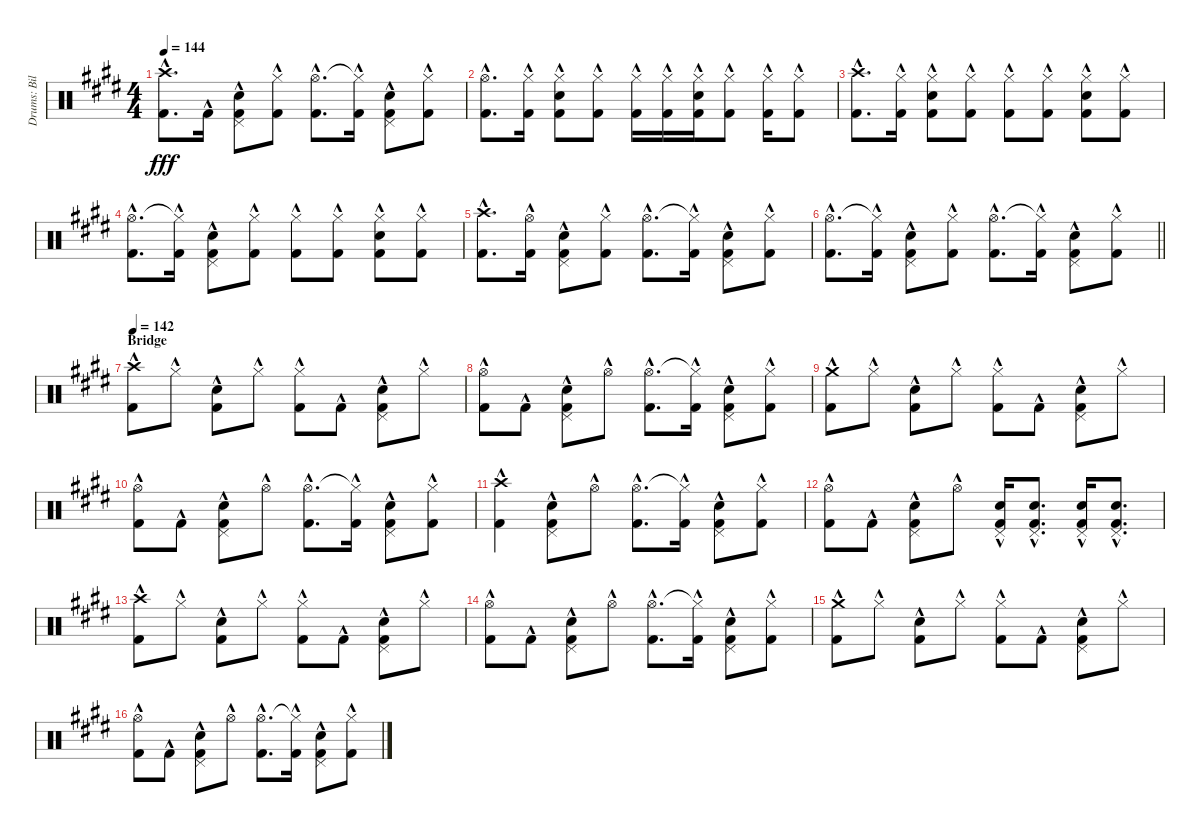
\track ("Drums: Bill" "Drums: Bil") {instrument percussion}
\staff {score}
\articulation defaults
\ts (4 4)
\tempo 144
\clef neutral
\ks e
("Crash high (hit)"{hac} "Kick (hit) 2"{hac}).8{d dy fff} "Kick (hit) 2"{hac}.16 ("Pedal Hi-Hat (hit)"{hac} "Snare (hit) 2"{hac} "Kick (hit) 2"{hac}).8 ("Hi-Hat (closed)"{hac} "Kick (hit) 2"{hac}).8 ("Hi-Hat (open)"{hac} "Kick (hit) 2"{hac}).8{d} ("Hi-Hat (closed)"{t} "Kick (hit) 2"{hac}).16 ("Pedal Hi-Hat (hit)"{hac} "Snare (hit) 2"{hac} "Kick (hit) 2"{hac}).8 ("Hi-Hat (closed)"{hac} "Kick (hit) 2"{hac}).8 |
("Hi-Hat (open)"{hac} "Kick (hit) 2"{hac}).8{d} ("Hi-Hat (closed)"{hac} "Kick (hit) 2"{hac}).16 ("Hi-Hat (closed)"{hac} "Snare (hit) 2"{hac} "Kick (hit) 2"{hac}).8 ("Hi-Hat (closed)"{hac} "Kick (hit) 2"{hac}).8 ("Hi-Hat (closed)"{hac} "Kick (hit) 2"{hac}).16 ("Hi-Hat (closed)"{hac} "Kick (hit) 2"{hac}).16 ("Hi-Hat (closed)"{hac} "Snare (hit) 2"{hac} "Kick (hit) 2"{hac}).16 ("Hi-Hat (closed)"{hac} "Kick (hit) 2"{hac}).8 ("Hi-Hat (closed)"{hac} "Kick (hit) 2"{hac}).16 ("Hi-Hat (closed)"{hac} "Kick (hit) 2"{hac}).8 |
("Crash high (hit)"{hac} "Kick (hit) 2"{hac}).8{d} ("Hi-Hat (closed)"{hac} "Kick (hit) 2"{hac}).16 ("Hi-Hat (closed)"{hac} "Snare (hit) 2"{hac} "Kick (hit) 2"{hac}).8 ("Hi-Hat (closed)"{hac} "Kick (hit) 2"{hac}).8 ("Hi-Hat (closed)"{hac} "Kick (hit) 2"{hac}).8 ("Hi-Hat (closed)"{hac} "Kick (hit) 2"{hac}).8 ("Hi-Hat (closed)"{hac} "Snare (hit) 2"{hac} "Kick (hit) 2"{hac}).8 ("Hi-Hat (closed)"{hac} "Kick (hit) 2"{hac}).8 |
("Hi-Hat (open)"{hac} "Kick (hit) 2"{hac}).8{d} ("Hi-Hat (closed)"{t} "Kick (hit) 2"{hac}).16 ("Pedal Hi-Hat (hit)"{hac} "Snare (hit) 2"{hac} "Kick (hit) 2"{hac}).8 ("Hi-Hat (closed)"{hac} "Kick (hit) 2"{hac}).8 ("Hi-Hat (closed)"{hac} "Kick (hit) 2"{hac}).8 ("Hi-Hat (closed)"{hac} "Kick (hit) 2"{hac}).8 ("Hi-Hat (closed)"{hac} "Snare (hit) 2"{hac} "Kick (hit) 2"{hac}).8 ("Hi-Hat (closed)"{hac} "Kick (hit) 2"{hac}).8 |
("Crash high (hit)"{hac} "Kick (hit) 2"{hac}).8{d} ("Hi-Hat (open)"{hac} "Kick (hit) 2"{hac}).16 ("Pedal Hi-Hat (hit)"{hac} "Snare (hit) 2"{hac} "Kick (hit) 2"{hac}).8 ("Hi-Hat (closed)"{hac} "Kick (hit) 2"{hac}).8 ("Hi-Hat (open)"{hac} "Kick (hit) 2"{hac}).8{d} ("Hi-Hat (closed)"{t} "Kick (hit) 2"{hac}).16 ("Pedal Hi-Hat (hit)"{hac} "Snare (hit) 2"{hac} "Kick (hit) 2"{hac}).8 ("Hi-Hat (closed)"{hac} "Kick (hit) 2"{hac}).8 |
\barLineRight lightlight
("Hi-Hat (open)"{hac} "Kick (hit) 2"{hac}).8{d} ("Hi-Hat (closed)"{t} "Kick (hit) 2"{hac}).16 ("Pedal Hi-Hat (hit)"{hac} "Snare (hit) 2"{hac} "Kick (hit) 2"{hac}).8 ("Hi-Hat (closed)"{hac} "Kick (hit) 2"{hac}).8 ("Hi-Hat (open)"{hac} "Kick (hit) 2"{hac}).8{d} ("Hi-Hat (closed)"{t} "Kick (hit) 2"{hac}).16 ("Pedal Hi-Hat (hit)"{hac} "Snare (hit) 2"{hac} "Kick (hit) 2"{hac}).8 ("Hi-Hat (closed)"{hac} "Kick (hit) 2"{hac}).8 |
\section ("" "Bridge")
\tempo 142
("Crash high (hit)"{hac} "Kick (hit) 2"{hac}).8 "Hi-Hat (closed)"{hac}.8 ("Snare (hit) 2"{hac} "Kick (hit) 2"{hac}).8 "Hi-Hat (closed)"{hac}.8 ("Hi-Hat (closed)"{hac} "Kick (hit) 2"{hac}).8 "Kick (hit) 2"{hac}.8 ("Pedal Hi-Hat (hit)"{hac} "Snare (hit) 2"{hac} "Kick (hit) 2"{hac}).8 "Hi-Hat (closed)"{hac}.8 |
("Hi-Hat (open)"{hac} "Kick (hit) 2"{hac}).8 "Kick (hit) 2"{hac}.8 ("Pedal Hi-Hat (hit)"{hac} "Snare (hit) 2"{hac} "Kick (hit) 2"{hac}).8 "Hi-Hat (open)"{hac}.8 ("Hi-Hat (open)"{hac} "Kick (hit) 2"{hac}).8{d} ("Hi-Hat (closed)"{t} "Kick (hit) 2"{hac}).16 ("Pedal Hi-Hat (hit)"{hac} "Snare (hit) 2"{hac} "Kick (hit) 2"{hac}).8 ("Hi-Hat (closed)"{hac} "Kick (hit) 2"{hac}).8 |
("Crash medium (hit)"{hac} "Kick (hit) 2"{hac}).8 "Hi-Hat (closed)"{hac}.8 ("Snare (hit) 2"{hac} "Kick (hit) 2"{hac}).8 "Hi-Hat (closed)"{hac}.8 ("Hi-Hat (closed)"{hac} "Kick (hit) 2"{hac}).8 "Kick (hit) 2"{hac}.8 ("Pedal Hi-Hat (hit)"{hac} "Snare (hit) 2"{hac} "Kick (hit) 2"{hac}).8 "Hi-Hat (closed)"{hac}.8 |
("Hi-Hat (open)"{hac} "Kick (hit) 2"{hac}).8 "Kick (hit) 2"{hac}.8 ("Pedal Hi-Hat (hit)"{hac} "Snare (hit) 2"{hac} "Kick (hit) 2"{hac}).8 "Hi-Hat (open)"{hac}.8 ("Hi-Hat (open)"{hac} "Kick (hit) 2"{hac}).8{d} ("Hi-Hat (closed)"{t} "Kick (hit) 2"{hac}).16 ("Pedal Hi-Hat (hit)"{hac} "Snare (hit) 2"{hac} "Kick (hit) 2"{hac}).8 ("Hi-Hat (closed)"{hac} "Kick (hit) 2"{hac}).8 |
("Crash high (hit)"{hac} "Kick (hit) 2"{hac}).4 ("Pedal Hi-Hat (hit)"{hac} "Snare (hit) 2"{hac} "Kick (hit) 2"{hac}).8 "Hi-Hat (open)"{hac}.8 ("Hi-Hat (open)"{hac} "Kick (hit) 2"{hac}).8{d} ("Hi-Hat (closed)"{t} "Kick (hit) 2"{hac}).16 ("Pedal Hi-Hat (hit)"{hac} "Snare (hit) 2"{hac} "Kick (hit) 2"{hac}).8 ("Hi-Hat (closed)"{hac} "Kick (hit) 2"{hac}).8 |
("Hi-Hat (open)"{hac} "Kick (hit) 2"{hac}).8 "Kick (hit) 2"{hac}.8 ("Pedal Hi-Hat (hit)"{hac} "Snare (hit) 2"{hac} "Kick (hit) 2"{hac}).8 "Hi-Hat (open)"{hac}.8 ("Pedal Hi-Hat (hit)"{hac} "Snare (hit) 2"{hac} "Kick (hit) 2"{hac}).16 ("Pedal Hi-Hat (hit)"{hac} "Snare (hit) 2"{hac} "Kick (hit) 2"{hac}).8{d} ("Pedal Hi-Hat (hit)"{hac} "Snare (hit) 2"{hac} "Kick (hit) 2"{hac}).16 ("Pedal Hi-Hat (hit)"{hac} "Snare (hit) 2"{hac} "Kick (hit) 2"{hac}).8{d} |
("Crash high (hit)"{hac} "Kick (hit) 2"{hac}).8 "Hi-Hat (closed)"{hac}.8 ("Snare (hit) 2"{hac} "Kick (hit) 2"{hac}).8 "Hi-Hat (closed)"{hac}.8 ("Hi-Hat (closed)"{hac} "Kick (hit) 2"{hac}).8 "Kick (hit) 2"{hac}.8 ("Pedal Hi-Hat (hit)"{hac} "Snare (hit) 2"{hac} "Kick (hit) 2"{hac}).8 "Hi-Hat (closed)"{hac}.8 |
("Hi-Hat (open)"{hac} "Kick (hit) 2"{hac}).8 "Kick (hit) 2"{hac}.8 ("Pedal Hi-Hat (hit)"{hac} "Snare (hit) 2"{hac} "Kick (hit) 2"{hac}).8 "Hi-Hat (open)"{hac}.8 ("Hi-Hat (open)"{hac} "Kick (hit) 2"{hac}).8{d} ("Hi-Hat (closed)"{t} "Kick (hit) 2"{hac}).16 ("Pedal Hi-Hat (hit)"{hac} "Snare (hit) 2"{hac} "Kick (hit) 2"{hac}).8 ("Hi-Hat (closed)"{hac} "Kick (hit) 2"{hac}).8 |
("Crash medium (hit)"{hac} "Kick (hit) 2"{hac}).8 "Hi-Hat (closed)"{hac}.8 ("Snare (hit) 2"{hac} "Kick (hit) 2"{hac}).8 "Hi-Hat (closed)"{hac}.8 ("Hi-Hat (closed)"{hac} "Kick (hit) 2"{hac}).8 "Kick (hit) 2"{hac}.8 ("Pedal Hi-Hat (hit)"{hac} "Snare (hit) 2"{hac} "Kick (hit) 2"{hac}).8 "Hi-Hat (closed)"{hac}.8 |
("Hi-Hat (open)"{hac} "Kick (hit) 2"{hac}).8 "Kick (hit) 2"{hac}.8 ("Pedal Hi-Hat (hit)"{hac} "Snare (hit) 2"{hac} "Kick (hit) 2"{hac}).8 "Hi-Hat (open)"{hac}.8 ("Hi-Hat (open)"{hac} "Kick (hit) 2"{hac}).8{d} ("Hi-Hat (closed)"{t} "Kick (hit) 2"{hac}).16 ("Pedal Hi-Hat (hit)"{hac} "Snare (hit) 2"{hac} "Kick (hit) 2"{hac}).8 ("Hi-Hat (closed)"{hac} "Kick (hit) 2"{hac}).8
